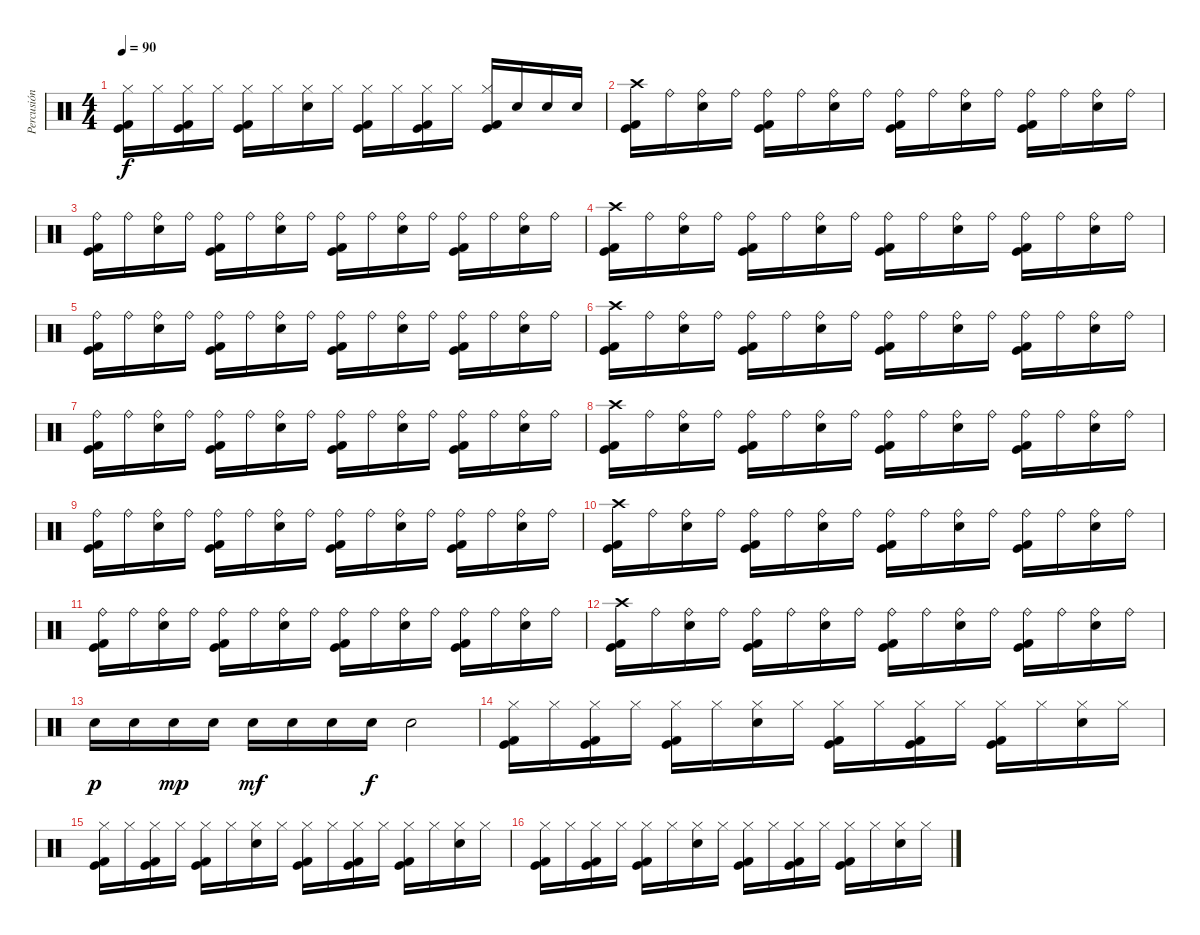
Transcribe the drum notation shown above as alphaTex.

\track ("Percusión" "Percusión") {instrument percussion}
\staff {score}
\articulation defaults
\ts (4 4)
\tempo 90
\clef neutral
\ks c
("Kick (hit) 2" "Hi-Hat (closed)" "Kick (hit)").16{dy f} "Hi-Hat (closed)".16 ("Kick (hit) 2" "Hi-Hat (closed)" "Kick (hit)").16 "Hi-Hat (closed)".16 ("Kick (hit) 2" "Hi-Hat (closed)" "Kick (hit)").16 "Hi-Hat (closed)".16 ("Snare (hit) 2" "Hi-Hat (closed)").16 "Hi-Hat (closed)".16 ("Kick (hit) 2" "Hi-Hat (closed)" "Kick (hit)").16 "Hi-Hat (closed)".16 ("Kick (hit) 2" "Hi-Hat (closed)" "Kick (hit)").16 "Hi-Hat (closed)".16 ("Kick (hit) 2" "Hi-Hat (closed)" "Kick (hit)").16 "Snare (hit) 2".16 "Snare (hit) 2".16 "Snare (hit) 2".16 |
("Kick (hit) 2" "Crash high (hit)" "Kick (hit)").16 "Ride (bell)".16 ("Snare (hit) 2" "Ride (bell)").16 "Ride (bell)".16 ("Kick (hit) 2" "Ride (bell)" "Kick (hit)").16 "Ride (bell)".16 ("Snare (hit) 2" "Ride (bell)").16 "Ride (bell)".16 ("Kick (hit) 2" "Ride (bell)" "Kick (hit)").16 "Ride (bell)".16 ("Snare (hit) 2" "Ride (bell)").16 "Ride (bell)".16 ("Kick (hit) 2" "Ride (bell)" "Kick (hit)").16 "Ride (bell)".16 ("Snare (hit) 2" "Ride (bell)").16 "Ride (bell)".16 |
("Kick (hit) 2" "Ride (bell)" "Kick (hit)").16 "Ride (bell)".16 ("Snare (hit) 2" "Ride (bell)").16 "Ride (bell)".16 ("Kick (hit) 2" "Ride (bell)" "Kick (hit)").16 "Ride (bell)".16 ("Snare (hit) 2" "Ride (bell)").16 "Ride (bell)".16 ("Kick (hit) 2" "Ride (bell)" "Kick (hit)").16 "Ride (bell)".16 ("Snare (hit) 2" "Ride (bell)").16 "Ride (bell)".16 ("Kick (hit) 2" "Ride (bell)" "Kick (hit)").16 "Ride (bell)".16 ("Snare (hit) 2" "Ride (bell)").16 "Ride (bell)".16 |
("Kick (hit) 2" "Crash high (hit)" "Kick (hit)").16 "Ride (bell)".16 ("Snare (hit) 2" "Ride (bell)").16 "Ride (bell)".16 ("Kick (hit) 2" "Ride (bell)" "Kick (hit)").16 "Ride (bell)".16 ("Snare (hit) 2" "Ride (bell)").16 "Ride (bell)".16 ("Kick (hit) 2" "Ride (bell)" "Kick (hit)").16 "Ride (bell)".16 ("Snare (hit) 2" "Ride (bell)").16 "Ride (bell)".16 ("Kick (hit) 2" "Ride (bell)" "Kick (hit)").16 "Ride (bell)".16 ("Snare (hit) 2" "Ride (bell)").16 "Ride (bell)".16 |
("Kick (hit) 2" "Ride (bell)" "Kick (hit)").16 "Ride (bell)".16 ("Snare (hit) 2" "Ride (bell)").16 "Ride (bell)".16 ("Kick (hit) 2" "Ride (bell)" "Kick (hit)").16 "Ride (bell)".16 ("Snare (hit) 2" "Ride (bell)").16 "Ride (bell)".16 ("Kick (hit) 2" "Ride (bell)" "Kick (hit)").16 "Ride (bell)".16 ("Snare (hit) 2" "Ride (bell)").16 "Ride (bell)".16 ("Kick (hit) 2" "Ride (bell)" "Kick (hit)").16 "Ride (bell)".16 ("Snare (hit) 2" "Ride (bell)").16 "Ride (bell)".16 |
("Kick (hit) 2" "Crash high (hit)" "Kick (hit)").16 "Ride (bell)".16 ("Snare (hit) 2" "Ride (bell)").16 "Ride (bell)".16 ("Kick (hit) 2" "Ride (bell)" "Kick (hit)").16 "Ride (bell)".16 ("Snare (hit) 2" "Ride (bell)").16 "Ride (bell)".16 ("Kick (hit) 2" "Ride (bell)" "Kick (hit)").16 "Ride (bell)".16 ("Snare (hit) 2" "Ride (bell)").16 "Ride (bell)".16 ("Kick (hit) 2" "Ride (bell)" "Kick (hit)").16 "Ride (bell)".16 ("Snare (hit) 2" "Ride (bell)").16 "Ride (bell)".16 |
("Kick (hit) 2" "Ride (bell)" "Kick (hit)").16 "Ride (bell)".16 ("Snare (hit) 2" "Ride (bell)").16 "Ride (bell)".16 ("Kick (hit) 2" "Ride (bell)" "Kick (hit)").16 "Ride (bell)".16 ("Snare (hit) 2" "Ride (bell)").16 "Ride (bell)".16 ("Kick (hit) 2" "Ride (bell)" "Kick (hit)").16 "Ride (bell)".16 ("Snare (hit) 2" "Ride (bell)").16 "Ride (bell)".16 ("Kick (hit) 2" "Ride (bell)" "Kick (hit)").16 "Ride (bell)".16 ("Snare (hit) 2" "Ride (bell)").16 "Ride (bell)".16 |
("Kick (hit) 2" "Crash high (hit)" "Kick (hit)").16 "Ride (bell)".16 ("Snare (hit) 2" "Ride (bell)").16 "Ride (bell)".16 ("Kick (hit) 2" "Ride (bell)" "Kick (hit)").16 "Ride (bell)".16 ("Snare (hit) 2" "Ride (bell)").16 "Ride (bell)".16 ("Kick (hit) 2" "Ride (bell)" "Kick (hit)").16 "Ride (bell)".16 ("Snare (hit) 2" "Ride (bell)").16 "Ride (bell)".16 ("Kick (hit) 2" "Ride (bell)" "Kick (hit)").16 "Ride (bell)".16 ("Snare (hit) 2" "Ride (bell)").16 "Ride (bell)".16 |
("Kick (hit) 2" "Ride (bell)" "Kick (hit)").16 "Ride (bell)".16 ("Snare (hit) 2" "Ride (bell)").16 "Ride (bell)".16 ("Kick (hit) 2" "Ride (bell)" "Kick (hit)").16 "Ride (bell)".16 ("Snare (hit) 2" "Ride (bell)").16 "Ride (bell)".16 ("Kick (hit) 2" "Ride (bell)" "Kick (hit)").16 "Ride (bell)".16 ("Snare (hit) 2" "Ride (bell)").16 "Ride (bell)".16 ("Kick (hit) 2" "Ride (bell)" "Kick (hit)").16 "Ride (bell)".16 ("Snare (hit) 2" "Ride (bell)").16 "Ride (bell)".16 |
("Kick (hit) 2" "Crash high (hit)" "Kick (hit)").16 "Ride (bell)".16 ("Snare (hit) 2" "Ride (bell)").16 "Ride (bell)".16 ("Kick (hit) 2" "Ride (bell)" "Kick (hit)").16 "Ride (bell)".16 ("Snare (hit) 2" "Ride (bell)").16 "Ride (bell)".16 ("Kick (hit) 2" "Ride (bell)" "Kick (hit)").16 "Ride (bell)".16 ("Snare (hit) 2" "Ride (bell)").16 "Ride (bell)".16 ("Kick (hit) 2" "Ride (bell)" "Kick (hit)").16 "Ride (bell)".16 ("Snare (hit) 2" "Ride (bell)").16 "Ride (bell)".16 |
("Kick (hit) 2" "Ride (bell)" "Kick (hit)").16 "Ride (bell)".16 ("Snare (hit) 2" "Ride (bell)").16 "Ride (bell)".16 ("Kick (hit) 2" "Ride (bell)" "Kick (hit)").16 "Ride (bell)".16 ("Snare (hit) 2" "Ride (bell)").16 "Ride (bell)".16 ("Kick (hit) 2" "Ride (bell)" "Kick (hit)").16 "Ride (bell)".16 ("Snare (hit) 2" "Ride (bell)").16 "Ride (bell)".16 ("Kick (hit) 2" "Ride (bell)" "Kick (hit)").16 "Ride (bell)".16 ("Snare (hit) 2" "Ride (bell)").16 "Ride (bell)".16 |
("Kick (hit) 2" "Crash high (hit)" "Kick (hit)").16 "Ride (bell)".16 ("Snare (hit) 2" "Ride (bell)").16 "Ride (bell)".16 ("Kick (hit) 2" "Ride (bell)" "Kick (hit)").16 "Ride (bell)".16 ("Snare (hit) 2" "Ride (bell)").16 "Ride (bell)".16 ("Kick (hit) 2" "Ride (bell)" "Kick (hit)").16 "Ride (bell)".16 ("Snare (hit) 2" "Ride (bell)").16 "Ride (bell)".16 ("Kick (hit) 2" "Ride (bell)" "Kick (hit)").16 "Ride (bell)".16 ("Snare (hit) 2" "Ride (bell)").16 "Ride (bell)".16 |
"Snare (hit) 2".16{dy p} "Snare (hit) 2".16 "Snare (hit) 2".16{dy mp} "Snare (hit) 2".16 "Snare (hit) 2".16{dy mf} "Snare (hit) 2".16 "Snare (hit) 2".16 "Snare (hit) 2".16{dy f} "Snare (hit) 2".2 |
("Kick (hit) 2" "Hi-Hat (closed)" "Kick (hit)").16 "Hi-Hat (closed)".16 ("Kick (hit) 2" "Hi-Hat (closed)" "Kick (hit)").16 "Hi-Hat (closed)".16 ("Kick (hit) 2" "Hi-Hat (closed)" "Kick (hit)").16 "Hi-Hat (closed)".16 ("Snare (hit) 2" "Hi-Hat (closed)").16 "Hi-Hat (closed)".16 ("Kick (hit) 2" "Hi-Hat (closed)" "Kick (hit)").16 "Hi-Hat (closed)".16 ("Kick (hit) 2" "Hi-Hat (closed)" "Kick (hit)").16 "Hi-Hat (closed)".16 ("Kick (hit) 2" "Hi-Hat (closed)" "Kick (hit)").16 "Hi-Hat (closed)".16 ("Snare (hit) 2" "Hi-Hat (closed)").16 "Hi-Hat (closed)".16 |
("Kick (hit) 2" "Hi-Hat (closed)" "Kick (hit)").16 "Hi-Hat (closed)".16 ("Kick (hit) 2" "Hi-Hat (closed)" "Kick (hit)").16 "Hi-Hat (closed)".16 ("Kick (hit) 2" "Hi-Hat (closed)" "Kick (hit)").16 "Hi-Hat (closed)".16 ("Snare (hit) 2" "Hi-Hat (closed)").16 "Hi-Hat (closed)".16 ("Kick (hit) 2" "Hi-Hat (closed)" "Kick (hit)").16 "Hi-Hat (closed)".16 ("Kick (hit) 2" "Hi-Hat (closed)" "Kick (hit)").16 "Hi-Hat (closed)".16 ("Kick (hit) 2" "Hi-Hat (closed)" "Kick (hit)").16 "Hi-Hat (closed)".16 ("Snare (hit) 2" "Hi-Hat (closed)").16 "Hi-Hat (closed)".16 |
("Kick (hit) 2" "Hi-Hat (closed)" "Kick (hit)").16 "Hi-Hat (closed)".16 ("Kick (hit) 2" "Hi-Hat (closed)" "Kick (hit)").16 "Hi-Hat (closed)".16 ("Kick (hit) 2" "Hi-Hat (closed)" "Kick (hit)").16 "Hi-Hat (closed)".16 ("Snare (hit) 2" "Hi-Hat (closed)").16 "Hi-Hat (closed)".16 ("Kick (hit) 2" "Hi-Hat (closed)" "Kick (hit)").16 "Hi-Hat (closed)".16 ("Kick (hit) 2" "Hi-Hat (closed)" "Kick (hit)").16 "Hi-Hat (closed)".16 ("Kick (hit) 2" "Hi-Hat (closed)" "Kick (hit)").16 "Hi-Hat (closed)".16 ("Snare (hit) 2" "Hi-Hat (closed)").16 "Hi-Hat (closed)".16
